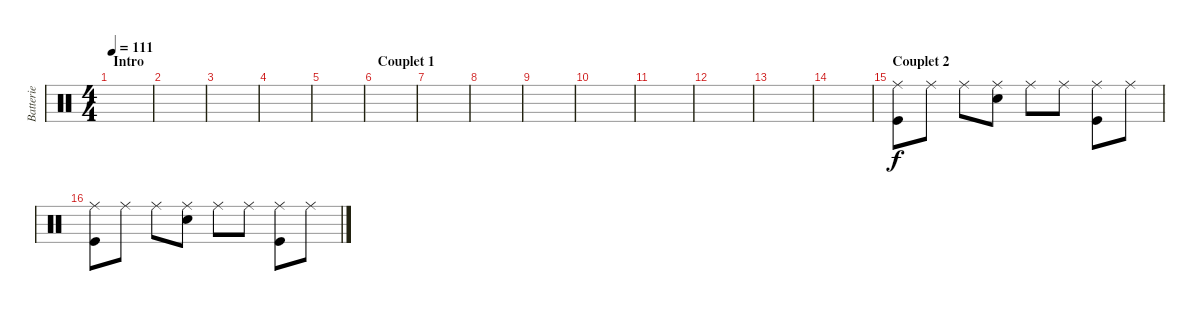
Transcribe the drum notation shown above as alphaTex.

\track ("Batterie" "Batterie") {instrument percussion}
\staff {score}
\articulation defaults
\ts (4 4)
\section ("" "Intro")
\tempo 111
\clef neutral
\ks c
|
|
|
|
|
\section ("" "Couplet 1")
|
|
|
|
|
|
|
|
|
\section ("" "Couplet 2")
("Ride (middle)" "Kick (hit)").8 "Ride (middle)".8 "Ride (middle)".8 ("Ride (middle)" "Electric Snare (hit)").8 "Ride (middle)".8 "Ride (middle)".8 ("Ride (middle)" "Kick (hit)").8 "Ride (middle)".8 |
("Ride (middle)" "Kick (hit)").8 "Ride (middle)".8 "Ride (middle)".8 ("Ride (middle)" "Electric Snare (hit)").8 "Ride (middle)".8 "Ride (middle)".8 ("Ride (middle)" "Kick (hit)").8 "Ride (middle)".8
